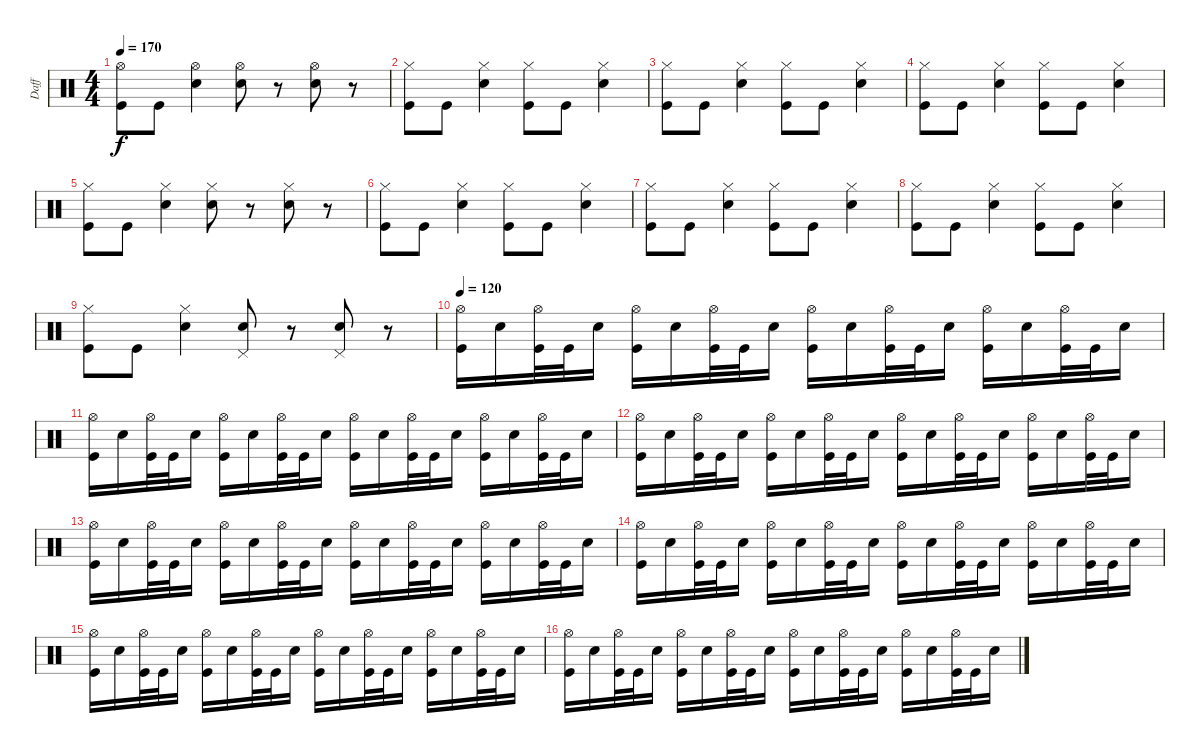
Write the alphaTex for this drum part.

\track ("Daff" "Daff") {instrument percussion}
\staff {score}
\articulation defaults
\ts (4 4)
\tempo 170
\clef neutral
\ks c
("Hi-Hat (open)" "Kick (hit)").8{dy f} "Kick (hit)".8 ("Hi-Hat (open)" "Snare (hit) 2").4 ("Hi-Hat (open)" "Snare (hit) 2").8 r.8 ("Hi-Hat (open)" "Snare (hit) 2").8 r.8 |
("Hi-Hat (closed)" "Kick (hit)").8 "Kick (hit)".8 ("Hi-Hat (closed)" "Snare (hit) 2").4 ("Hi-Hat (closed)" "Kick (hit)").8 "Kick (hit)".8 ("Hi-Hat (closed)" "Snare (hit) 2").4 |
("Hi-Hat (closed)" "Kick (hit)").8 "Kick (hit)".8 ("Hi-Hat (closed)" "Snare (hit) 2").4 ("Hi-Hat (closed)" "Kick (hit)").8 "Kick (hit)".8 ("Hi-Hat (closed)" "Snare (hit) 2").4 |
("Hi-Hat (closed)" "Kick (hit)").8 "Kick (hit)".8 ("Hi-Hat (closed)" "Snare (hit) 2").4 ("Hi-Hat (closed)" "Kick (hit)").8 "Kick (hit)".8 ("Hi-Hat (closed)" "Snare (hit) 2").4 |
("Hi-Hat (closed)" "Kick (hit)").8 "Kick (hit)".8 ("Hi-Hat (closed)" "Snare (hit) 2").4 ("Hi-Hat (closed)" "Snare (hit) 2").8 r.8 ("Hi-Hat (closed)" "Snare (hit) 2").8 r.8 |
("Hi-Hat (closed)" "Kick (hit)").8 "Kick (hit)".8 ("Hi-Hat (closed)" "Snare (hit) 2").4 ("Hi-Hat (closed)" "Kick (hit)").8 "Kick (hit)".8 ("Hi-Hat (closed)" "Snare (hit) 2").4 |
("Hi-Hat (closed)" "Kick (hit)").8 "Kick (hit)".8 ("Hi-Hat (closed)" "Snare (hit) 2").4 ("Hi-Hat (closed)" "Kick (hit)").8 "Kick (hit)".8 ("Hi-Hat (closed)" "Snare (hit) 2").4 |
("Hi-Hat (closed)" "Kick (hit)").8 "Kick (hit)".8 ("Hi-Hat (closed)" "Snare (hit) 2").4 ("Hi-Hat (closed)" "Kick (hit)").8 "Kick (hit)".8 ("Hi-Hat (closed)" "Snare (hit) 2").4 |
("Hi-Hat (closed)" "Kick (hit)").8 "Kick (hit)".8 ("Hi-Hat (closed)" "Snare (hit) 2").4 ("Pedal Hi-Hat (hit)" "Snare (hit) 2").8 r.8 ("Pedal Hi-Hat (hit)" "Snare (hit) 2").8 r.8 |
\tempo 120
("Hi-Hat (open)" "Kick (hit)").16 "Electric Snare (hit)".16 ("Hi-Hat (open)" "Kick (hit)").32 "Kick (hit)".32 "Electric Snare (hit)".16 ("Hi-Hat (open)" "Kick (hit)").16 "Electric Snare (hit)".16 ("Hi-Hat (open)" "Kick (hit)").32 "Kick (hit)".32 "Electric Snare (hit)".16 ("Hi-Hat (open)" "Kick (hit)").16 "Electric Snare (hit)".16 ("Hi-Hat (open)" "Kick (hit)").32 "Kick (hit)".32 "Electric Snare (hit)".16 ("Hi-Hat (open)" "Kick (hit)").16 "Electric Snare (hit)".16 ("Hi-Hat (open)" "Kick (hit)").32 "Kick (hit)".32 "Electric Snare (hit)".16 |
("Hi-Hat (open)" "Kick (hit)").16 "Electric Snare (hit)".16 ("Hi-Hat (open)" "Kick (hit)").32 "Kick (hit)".32 "Electric Snare (hit)".16 ("Hi-Hat (open)" "Kick (hit)").16 "Electric Snare (hit)".16 ("Hi-Hat (open)" "Kick (hit)").32 "Kick (hit)".32 "Electric Snare (hit)".16 ("Hi-Hat (open)" "Kick (hit)").16 "Electric Snare (hit)".16 ("Hi-Hat (open)" "Kick (hit)").32 "Kick (hit)".32 "Electric Snare (hit)".16 ("Hi-Hat (open)" "Kick (hit)").16 "Electric Snare (hit)".16 ("Hi-Hat (open)" "Kick (hit)").32 "Kick (hit)".32 "Electric Snare (hit)".16 |
("Hi-Hat (open)" "Kick (hit)").16 "Electric Snare (hit)".16 ("Hi-Hat (open)" "Kick (hit)").32 "Kick (hit)".32 "Electric Snare (hit)".16 ("Hi-Hat (open)" "Kick (hit)").16 "Electric Snare (hit)".16 ("Hi-Hat (open)" "Kick (hit)").32 "Kick (hit)".32 "Electric Snare (hit)".16 ("Hi-Hat (open)" "Kick (hit)").16 "Electric Snare (hit)".16 ("Hi-Hat (open)" "Kick (hit)").32 "Kick (hit)".32 "Electric Snare (hit)".16 ("Hi-Hat (open)" "Kick (hit)").16 "Electric Snare (hit)".16 ("Hi-Hat (open)" "Kick (hit)").32 "Kick (hit)".32 "Electric Snare (hit)".16 |
("Hi-Hat (open)" "Kick (hit)").16 "Electric Snare (hit)".16 ("Hi-Hat (open)" "Kick (hit)").32 "Kick (hit)".32 "Electric Snare (hit)".16 ("Hi-Hat (open)" "Kick (hit)").16 "Electric Snare (hit)".16 ("Hi-Hat (open)" "Kick (hit)").32 "Kick (hit)".32 "Electric Snare (hit)".16 ("Hi-Hat (open)" "Kick (hit)").16 "Electric Snare (hit)".16 ("Hi-Hat (open)" "Kick (hit)").32 "Kick (hit)".32 "Electric Snare (hit)".16 ("Hi-Hat (open)" "Kick (hit)").16 "Electric Snare (hit)".16 ("Hi-Hat (open)" "Kick (hit)").32 "Kick (hit)".32 "Electric Snare (hit)".16 |
("Hi-Hat (open)" "Kick (hit)").16 "Electric Snare (hit)".16 ("Hi-Hat (open)" "Kick (hit)").32 "Kick (hit)".32 "Electric Snare (hit)".16 ("Hi-Hat (open)" "Kick (hit)").16 "Electric Snare (hit)".16 ("Hi-Hat (open)" "Kick (hit)").32 "Kick (hit)".32 "Electric Snare (hit)".16 ("Hi-Hat (open)" "Kick (hit)").16 "Electric Snare (hit)".16 ("Hi-Hat (open)" "Kick (hit)").32 "Kick (hit)".32 "Electric Snare (hit)".16 ("Hi-Hat (open)" "Kick (hit)").16 "Electric Snare (hit)".16 ("Hi-Hat (open)" "Kick (hit)").32 "Kick (hit)".32 "Electric Snare (hit)".16 |
("Hi-Hat (open)" "Kick (hit)").16 "Electric Snare (hit)".16 ("Hi-Hat (open)" "Kick (hit)").32 "Kick (hit)".32 "Electric Snare (hit)".16 ("Hi-Hat (open)" "Kick (hit)").16 "Electric Snare (hit)".16 ("Hi-Hat (open)" "Kick (hit)").32 "Kick (hit)".32 "Electric Snare (hit)".16 ("Hi-Hat (open)" "Kick (hit)").16 "Electric Snare (hit)".16 ("Hi-Hat (open)" "Kick (hit)").32 "Kick (hit)".32 "Electric Snare (hit)".16 ("Hi-Hat (open)" "Kick (hit)").16 "Electric Snare (hit)".16 ("Hi-Hat (open)" "Kick (hit)").32 "Kick (hit)".32 "Electric Snare (hit)".16 |
("Hi-Hat (open)" "Kick (hit)").16 "Electric Snare (hit)".16 ("Hi-Hat (open)" "Kick (hit)").32 "Kick (hit)".32 "Electric Snare (hit)".16 ("Hi-Hat (open)" "Kick (hit)").16 "Electric Snare (hit)".16 ("Hi-Hat (open)" "Kick (hit)").32 "Kick (hit)".32 "Electric Snare (hit)".16 ("Hi-Hat (open)" "Kick (hit)").16 "Electric Snare (hit)".16 ("Hi-Hat (open)" "Kick (hit)").32 "Kick (hit)".32 "Electric Snare (hit)".16 ("Hi-Hat (open)" "Kick (hit)").16 "Electric Snare (hit)".16 ("Hi-Hat (open)" "Kick (hit)").32 "Kick (hit)".32 "Electric Snare (hit)".16
